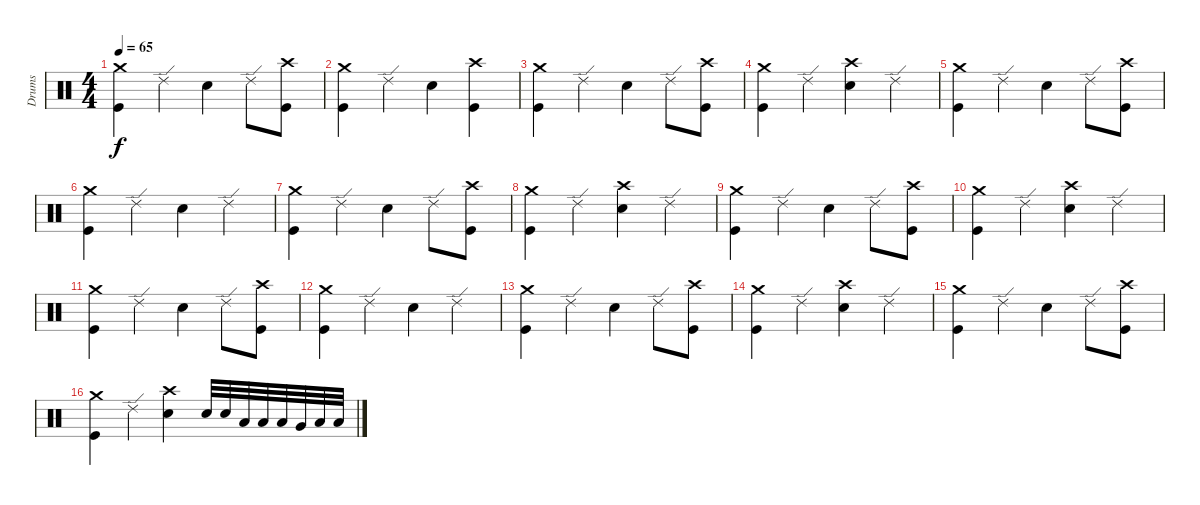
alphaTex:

\track ("Drums" "Drums") {instrument percussion}
\staff {score}
\articulation defaults
\ts (4 4)
\tempo 65
\clef neutral
\ks c
("Crash medium (hit)" "Kick (hit)").4{dy f} "Ride (edge) 2".4 "Snare (hit) 2".4 "Ride (edge) 2".8 ("Crash high (hit)" "Kick (hit)").8 |
("Crash medium (hit)" "Kick (hit)").4 "Ride (edge) 2".4 "Snare (hit) 2".4 ("Crash high (hit)" "Kick (hit)").4 |
("Crash medium (hit)" "Kick (hit)").4 "Ride (edge) 2".4 "Snare (hit) 2".4 "Ride (edge) 2".8 ("Crash high (hit)" "Kick (hit)").8 |
("Crash medium (hit)" "Kick (hit)").4 "Ride (edge) 2".4 ("Crash high (hit)" "Snare (hit) 2").4 "Ride (edge) 2".4 |
("Crash medium (hit)" "Kick (hit)").4 "Ride (edge) 2".4 "Snare (hit) 2".4 "Ride (edge) 2".8 ("Crash high (hit)" "Kick (hit)").8 |
("Crash medium (hit)" "Kick (hit)").4 "Ride (edge) 2".4 "Snare (hit) 2".4 "Ride (edge) 2".4 |
("Crash medium (hit)" "Kick (hit)").4 "Ride (edge) 2".4 "Snare (hit) 2".4 "Ride (edge) 2".8 ("Crash high (hit)" "Kick (hit)").8 |
("Crash medium (hit)" "Kick (hit)").4 "Ride (edge) 2".4 ("Crash high (hit)" "Snare (hit) 2").4 "Ride (edge) 2".4 |
("Crash medium (hit)" "Kick (hit)").4 "Ride (edge) 2".4 "Snare (hit) 2".4 "Ride (edge) 2".8 ("Crash high (hit)" "Kick (hit)").8 |
("Crash medium (hit)" "Kick (hit)").4 "Ride (edge) 2".4 ("Crash high (hit)" "Snare (hit) 2").4 "Ride (edge) 2".4 |
("Crash medium (hit)" "Kick (hit)").4 "Ride (edge) 2".4 "Snare (hit) 2".4 "Ride (edge) 2".8 ("Crash high (hit)" "Kick (hit)").8 |
("Crash medium (hit)" "Kick (hit)").4 "Ride (edge) 2".4 "Snare (hit) 2".4 "Ride (edge) 2".4 |
("Crash medium (hit)" "Kick (hit)").4 "Ride (edge) 2".4 "Snare (hit) 2".4 "Ride (edge) 2".8 ("Crash high (hit)" "Kick (hit)").8 |
("Crash medium (hit)" "Kick (hit)").4 "Ride (edge) 2".4 ("Crash high (hit)" "Snare (hit) 2").4 "Ride (edge) 2".4 |
("Crash medium (hit)" "Kick (hit)").4 "Ride (edge) 2".4 "Snare (hit) 2".4 "Ride (edge) 2".8 ("Crash high (hit)" "Kick (hit)").8 |
("Crash medium (hit)" "Kick (hit)").4 "Ride (edge) 2".4 ("Crash high (hit)" "Snare (hit) 2").4 "Snare (hit) 2".32 "Snare (hit) 2".32 "Low Tom (hit)".32 "Low Tom (hit)".32 "Low Tom (hit)".32 "Very Low Tom (hit)".32 "Low Floor Tom (hit)".32 "Low Floor Tom (hit)".32
